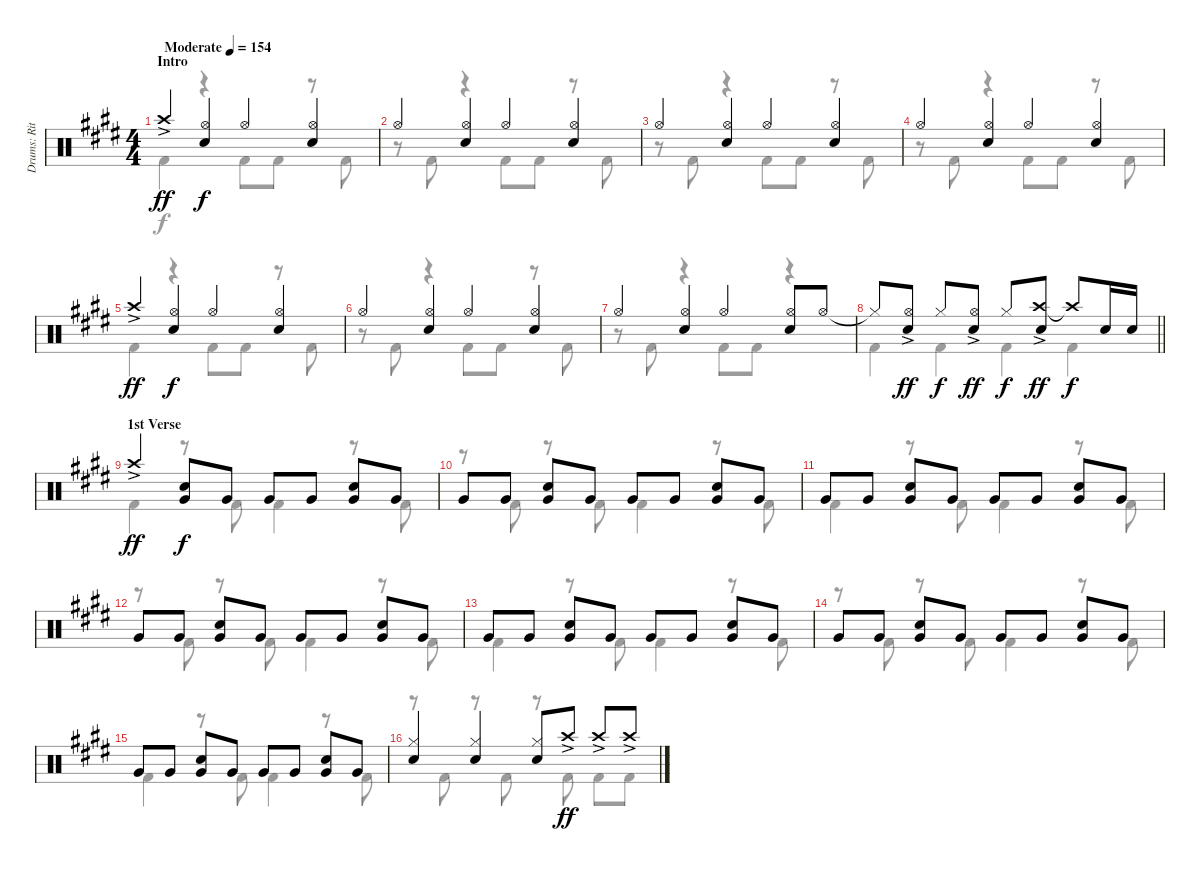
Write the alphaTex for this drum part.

\track ("Drums: Ritsu Tainaka" "Drums: Rit") {instrument percussion}
\staff {score}
\articulation defaults
\voice
\ts (4 4)
\section ("" "Intro")
\tempo (154 "Moderate")
\clef neutral
\ks e "Crash high (hit)"{ac}.4{dy ff}
("Hi-Hat (open)" "Electric Snare (hit)").4{dy f} "Hi-Hat (open)".4 ("Hi-Hat (open)" "Electric Snare (hit)").4 |
"Hi-Hat (open)".4 ("Hi-Hat (open)" "Electric Snare (hit)").4 "Hi-Hat (open)".4 ("Hi-Hat (open)" "Electric Snare (hit)").4 |
"Hi-Hat (open)".4 ("Hi-Hat (open)" "Electric Snare (hit)").4 "Hi-Hat (open)".4 ("Hi-Hat (open)" "Electric Snare (hit)").4 |
"Hi-Hat (open)".4 ("Hi-Hat (open)" "Electric Snare (hit)").4 "Hi-Hat (open)".4 ("Hi-Hat (open)" "Electric Snare (hit)").4 |
"Crash high (hit)"{ac}.4{dy ff} ("Hi-Hat (open)" "Electric Snare (hit)").4{dy f} "Hi-Hat (open)".4 ("Hi-Hat (open)" "Electric Snare (hit)").4 |
"Hi-Hat (open)".4 ("Hi-Hat (open)" "Electric Snare (hit)").4 "Hi-Hat (open)".4 ("Hi-Hat (open)" "Electric Snare (hit)").4 |
"Hi-Hat (open)".4 ("Hi-Hat (open)" "Electric Snare (hit)").4 "Hi-Hat (open)".4 ("Hi-Hat (open)" "Electric Snare (hit)").8 "Hi-Hat (open)".8 |
\barLineRight lightlight "Hi-Hat (closed)"{t}.8
("Hi-Hat (open)"{ac} "Electric Snare (hit)").8{dy ff} "Hi-Hat (closed)".8{dy f} ("Hi-Hat (open)"{ac} "Electric Snare (hit)").8{dy ff} "Hi-Hat (closed)".8{dy f} ("Crash high (hit)"{ac} "Electric Snare (hit)").8{dy ff} "Crash high (hit)"{t}.8{dy f} "Electric Snare (hit)".16 "Electric Snare (hit)".16 |
\section ("" "1st Verse")
"Crash high (hit)"{ac}.4{dy ff} ("Electric Snare (hit)" "Very Low Tom (hit)").8{dy f} "Very Low Tom (hit)".8 "Very Low Tom (hit)".8 "Very Low Tom (hit)".8 ("Electric Snare (hit)" "Very Low Tom (hit)").8 "Very Low Tom (hit)".8 |
"Very Low Tom (hit)".8 "Very Low Tom (hit)".8 ("Electric Snare (hit)" "Very Low Tom (hit)").8 "Very Low Tom (hit)".8 "Very Low Tom (hit)".8 "Very Low Tom (hit)".8 ("Electric Snare (hit)" "Very Low Tom (hit)").8 "Very Low Tom (hit)".8 |
"Very Low Tom (hit)".8 "Very Low Tom (hit)".8 ("Electric Snare (hit)" "Very Low Tom (hit)").8 "Very Low Tom (hit)".8 "Very Low Tom (hit)".8 "Very Low Tom (hit)".8 ("Electric Snare (hit)" "Very Low Tom (hit)").8 "Very Low Tom (hit)".8 |
"Very Low Tom (hit)".8 "Very Low Tom (hit)".8 ("Electric Snare (hit)" "Very Low Tom (hit)").8 "Very Low Tom (hit)".8 "Very Low Tom (hit)".8 "Very Low Tom (hit)".8 ("Electric Snare (hit)" "Very Low Tom (hit)").8 "Very Low Tom (hit)".8 |
"Very Low Tom (hit)".8 "Very Low Tom (hit)".8 ("Electric Snare (hit)" "Very Low Tom (hit)").8 "Very Low Tom (hit)".8 "Very Low Tom (hit)".8 "Very Low Tom (hit)".8 ("Electric Snare (hit)" "Very Low Tom (hit)").8 "Very Low Tom (hit)".8 |
"Very Low Tom (hit)".8 "Very Low Tom (hit)".8 ("Electric Snare (hit)" "Very Low Tom (hit)").8 "Very Low Tom (hit)".8 "Very Low Tom (hit)".8 "Very Low Tom (hit)".8 ("Electric Snare (hit)" "Very Low Tom (hit)").8 "Very Low Tom (hit)".8 |
"Very Low Tom (hit)".8 "Very Low Tom (hit)".8 ("Electric Snare (hit)" "Very Low Tom (hit)").8 "Very Low Tom (hit)".8 "Very Low Tom (hit)".8 "Very Low Tom (hit)".8 ("Electric Snare (hit)" "Very Low Tom (hit)").8 "Very Low Tom (hit)".8 |
("Hi-Hat (closed)" "Electric Snare (hit)").4 ("Hi-Hat (closed)" "Electric Snare (hit)").4 ("Hi-Hat (closed)" "Electric Snare (hit)").8 "Crash high (hit)"{ac}.8{dy ff} "Crash high (hit)"{ac}.8 "Crash high (hit)"{ac}.8
\voice
\clef neutral
\ottava regular
\simile none
\ks e "Kick (hit) 2".4{dy f}
r.4 "Kick (hit) 2".8 "Kick (hit) 2".8 r.8 "Kick (hit) 2".8 |
r.8 "Kick (hit) 2".8 r.4 "Kick (hit) 2".8 "Kick (hit) 2".8 r.8 "Kick (hit) 2".8 |
r.8 "Kick (hit) 2".8 r.4 "Kick (hit) 2".8 "Kick (hit) 2".8 r.8 "Kick (hit) 2".8 |
r.8 "Kick (hit) 2".8 r.4 "Kick (hit) 2".8 "Kick (hit) 2".8 r.8 "Kick (hit) 2".8 |
"Kick (hit) 2".4 r.4 "Kick (hit) 2".8 "Kick (hit) 2".8 r.8 "Kick (hit) 2".8 |
r.8 "Kick (hit) 2".8 r.4 "Kick (hit) 2".8 "Kick (hit) 2".8 r.8 "Kick (hit) 2".8 |
r.8 "Kick (hit) 2".8 r.4 "Kick (hit) 2".8 "Kick (hit) 2".8 r.4 |
\barLineRight lightlight "Kick (hit) 2".4 "Kick (hit) 2".4 "Kick (hit) 2".4 "Kick (hit) 2".4
|
"Kick (hit) 2".4 r.8 "Kick (hit) 2".8 "Kick (hit) 2".4 r.8 "Kick (hit) 2".8 |
r.8 "Kick (hit) 2".8 r.8 "Kick (hit) 2".8 "Kick (hit) 2".4 r.8 "Kick (hit) 2".8 |
"Kick (hit) 2".4 r.8 "Kick (hit) 2".8 "Kick (hit) 2".4 r.8 "Kick (hit) 2".8 |
r.8 "Kick (hit) 2".8 r.8 "Kick (hit) 2".8 "Kick (hit) 2".4 r.8 "Kick (hit) 2".8 |
"Kick (hit) 2".4 r.8 "Kick (hit) 2".8 "Kick (hit) 2".4 r.8 "Kick (hit) 2".8 |
r.8 "Kick (hit) 2".8 r.8 "Kick (hit) 2".8 "Kick (hit) 2".4 r.8 "Kick (hit) 2".8 |
"Kick (hit) 2".4 r.8 "Kick (hit) 2".8 "Kick (hit) 2".4 r.8 "Kick (hit) 2".8 |
r.8 "Kick (hit) 2".8 r.8 "Kick (hit) 2".8 r.8 "Kick (hit) 2".8 "Kick (hit) 2".8 "Kick (hit) 2".8
